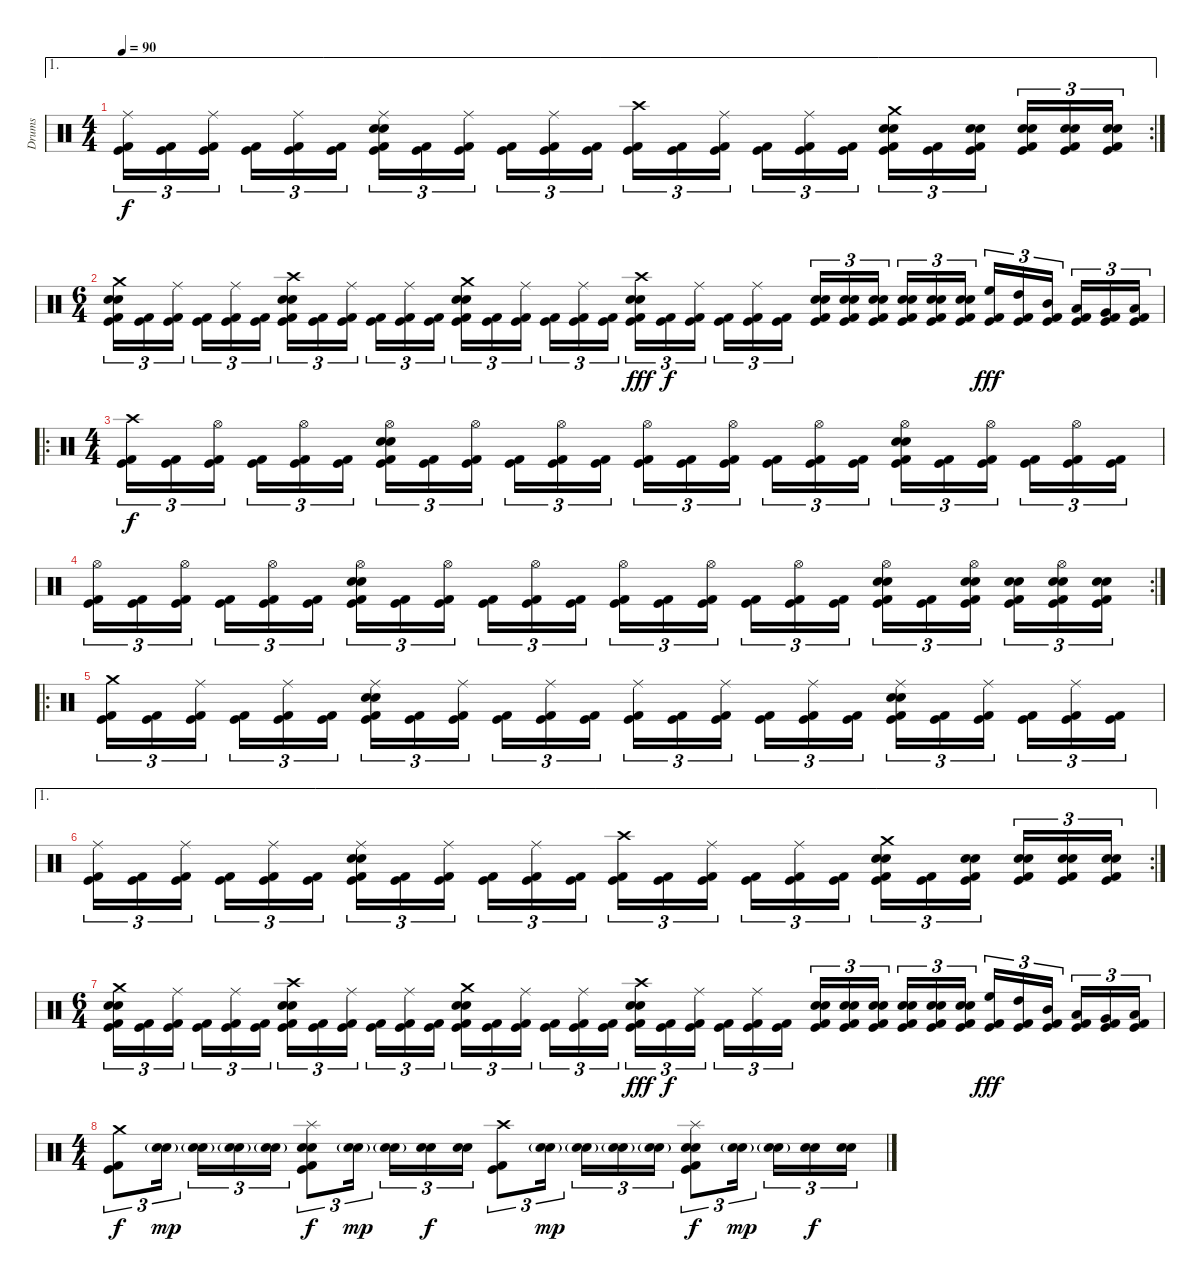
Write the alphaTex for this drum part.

\track ("Drums" "Drums") {instrument percussion}
\staff {score}
\articulation defaults
\ae 1
\rc 2
\ts (4 4)
\tempo 90
\clef neutral
\ks c
("Ride (middle)" "Kick (hit)" "Kick (hit) 2").16{tu (3 2) dy f} ("Kick (hit)" "Kick (hit) 2").16{tu (3 2)} ("Ride (middle)" "Kick (hit)" "Kick (hit) 2").16{tu (3 2) beam splitsecondary} ("Kick (hit)" "Kick (hit) 2").16{tu (3 2)} ("Ride (middle)" "Kick (hit)" "Kick (hit) 2").16{tu (3 2)} ("Kick (hit)" "Kick (hit) 2").16{tu (3 2)} ("Ride (middle)" "Snare (hit) 2" "Electric Snare (hit)" "Kick (hit)" "Kick (hit) 2").16{tu (3 2)} ("Kick (hit)" "Kick (hit) 2").16{tu (3 2)} ("Ride (middle)" "Kick (hit)" "Kick (hit) 2").16{tu (3 2) beam splitsecondary} ("Kick (hit)" "Kick (hit) 2").16{tu (3 2)} ("Ride (middle)" "Kick (hit)" "Kick (hit) 2").16{tu (3 2)} ("Kick (hit)" "Kick (hit) 2").16{tu (3 2)} ("Crash high (hit)" "Kick (hit)" "Kick (hit) 2").16{tu (3 2)} ("Kick (hit)" "Kick (hit) 2").16{tu (3 2)} ("Ride (middle)" "Kick (hit)" "Kick (hit) 2").16{tu (3 2) beam splitsecondary} ("Kick (hit)" "Kick (hit) 2").16{tu (3 2)} ("Ride (middle)" "Kick (hit)" "Kick (hit) 2").16{tu (3 2)} ("Kick (hit)" "Kick (hit) 2").16{tu (3 2)} ("Crash medium (hit)" "Electric Snare (hit)" "Snare (hit) 2" "Kick (hit)" "Kick (hit) 2").16{tu (3 2)} ("Kick (hit)" "Kick (hit) 2").16{tu (3 2)} ("Electric Snare (hit)" "Snare (hit) 2" "Kick (hit)" "Kick (hit) 2").16{tu (3 2) beam splitsecondary} ("Electric Snare (hit)" "Snare (hit) 2" "Kick (hit)" "Kick (hit) 2").16{tu (3 2)} ("Electric Snare (hit)" "Snare (hit) 2" "Kick (hit)" "Kick (hit) 2").16{tu (3 2)} ("Electric Snare (hit)" "Snare (hit) 2" "Kick (hit)" "Kick (hit) 2").16{tu (3 2)} |
\ts (6 4)
("Crash medium (hit)" "Electric Snare (hit)" "Snare (hit) 2" "Kick (hit)" "Kick (hit) 2").16{tu (3 2)} ("Kick (hit)" "Kick (hit) 2").16{tu (3 2)} ("Ride (middle)" "Kick (hit)" "Kick (hit) 2").16{tu (3 2) beam splitsecondary} ("Kick (hit)" "Kick (hit) 2").16{tu (3 2)} ("Ride (middle)" "Kick (hit)" "Kick (hit) 2").16{tu (3 2)} ("Kick (hit)" "Kick (hit) 2").16{tu (3 2) beam splitsecondary} ("Crash high (hit)" "Snare (hit) 2" "Electric Snare (hit)" "Kick (hit)" "Kick (hit) 2").16{tu (3 2)} ("Kick (hit)" "Kick (hit) 2").16{tu (3 2)} ("Ride (middle)" "Kick (hit)" "Kick (hit) 2").16{tu (3 2) beam splitsecondary} ("Kick (hit)" "Kick (hit) 2").16{tu (3 2)} ("Ride (middle)" "Kick (hit)" "Kick (hit) 2").16{tu (3 2)} ("Kick (hit)" "Kick (hit) 2").16{tu (3 2) beam splitsecondary} ("Crash medium (hit)" "Snare (hit) 2" "Electric Snare (hit)" "Kick (hit)" "Kick (hit) 2").16{tu (3 2)} ("Kick (hit)" "Kick (hit) 2").16{tu (3 2)} ("Ride (middle)" "Kick (hit)" "Kick (hit) 2").16{tu (3 2) beam splitsecondary} ("Kick (hit)" "Kick (hit) 2").16{tu (3 2)} ("Ride (middle)" "Kick (hit)" "Kick (hit) 2").16{tu (3 2)} ("Kick (hit)" "Kick (hit) 2").16{tu (3 2)} ("Crash high (hit)" "Snare (hit) 2" "Electric Snare (hit)" "Kick (hit)" "Kick (hit) 2").16{tu (3 2) dy fff} ("Kick (hit)" "Kick (hit) 2").16{tu (3 2) dy f} ("Ride (middle)" "Kick (hit)" "Kick (hit) 2").16{tu (3 2) beam splitsecondary} ("Kick (hit)" "Kick (hit) 2").16{tu (3 2)} ("Ride (middle)" "Kick (hit)" "Kick (hit) 2").16{tu (3 2)} ("Kick (hit)" "Kick (hit) 2").16{tu (3 2) beam splitsecondary} ("Snare (hit) 2" "Electric Snare (hit)" "Kick (hit)" "Kick (hit) 2").16{tu (3 2)} ("Snare (hit) 2" "Electric Snare (hit)" "Kick (hit)" "Kick (hit) 2").16{tu (3 2)} ("Snare (hit) 2" "Electric Snare (hit)" "Kick (hit)" "Kick (hit) 2").16{tu (3 2) beam splitsecondary} ("Snare (hit) 2" "Electric Snare (hit)" "Kick (hit)" "Kick (hit) 2").16{tu (3 2)} ("Snare (hit) 2" "Electric Snare (hit)" "Kick (hit)" "Kick (hit) 2").16{tu (3 2)} ("Snare (hit) 2" "Electric Snare (hit)" "Kick (hit)" "Kick (hit) 2").16{tu (3 2) beam splitsecondary} ("High Floor Tom (hit)" "Kick (hit)" "Kick (hit) 2").16{tu (3 2) dy fff} ("High Tom (hit)" "Kick (hit)" "Kick (hit) 2").16{tu (3 2)} ("Mid Tom (hit)" "Kick (hit)" "Kick (hit) 2").16{tu (3 2) beam splitsecondary} ("Low Tom (hit)" "Kick (hit)" "Kick (hit) 2").16{tu (3 2)} ("Very Low Tom (hit)" "Kick (hit)" "Kick (hit) 2").16{tu (3 2)} ("Low Floor Tom (hit)" "Kick (hit)" "Kick (hit) 2").16{tu (3 2)} |
\ro
\ts (4 4)
("Crash high (hit)" "Kick (hit)" "Kick (hit) 2").16{tu (3 2) dy f} ("Kick (hit)" "Kick (hit) 2").16{tu (3 2)} ("Hi-Hat (open)" "Kick (hit)" "Kick (hit) 2").16{tu (3 2) beam splitsecondary} ("Kick (hit)" "Kick (hit) 2").16{tu (3 2)} ("Hi-Hat (open)" "Kick (hit)" "Kick (hit) 2").16{tu (3 2)} ("Kick (hit)" "Kick (hit) 2").16{tu (3 2)} ("Hi-Hat (open)" "Snare (hit) 2" "Electric Snare (hit)" "Kick (hit)" "Kick (hit) 2").16{tu (3 2)} ("Kick (hit)" "Kick (hit) 2").16{tu (3 2)} ("Hi-Hat (open)" "Kick (hit)" "Kick (hit) 2").16{tu (3 2) beam splitsecondary} ("Kick (hit)" "Kick (hit) 2").16{tu (3 2)} ("Hi-Hat (open)" "Kick (hit)" "Kick (hit) 2").16{tu (3 2)} ("Kick (hit)" "Kick (hit) 2").16{tu (3 2)} ("Hi-Hat (open)" "Kick (hit)" "Kick (hit) 2").16{tu (3 2)} ("Kick (hit)" "Kick (hit) 2").16{tu (3 2)} ("Hi-Hat (open)" "Kick (hit)" "Kick (hit) 2").16{tu (3 2) beam splitsecondary} ("Kick (hit)" "Kick (hit) 2").16{tu (3 2)} ("Hi-Hat (open)" "Kick (hit)" "Kick (hit) 2").16{tu (3 2)} ("Kick (hit)" "Kick (hit) 2").16{tu (3 2)} ("Hi-Hat (open)" "Electric Snare (hit)" "Snare (hit) 2" "Kick (hit)" "Kick (hit) 2").16{tu (3 2)} ("Kick (hit)" "Kick (hit) 2").16{tu (3 2)} ("Hi-Hat (open)" "Kick (hit)" "Kick (hit) 2").16{tu (3 2) beam splitsecondary} ("Kick (hit)" "Kick (hit) 2").16{tu (3 2)} ("Hi-Hat (open)" "Kick (hit)" "Kick (hit) 2").16{tu (3 2)} ("Kick (hit)" "Kick (hit) 2").16{tu (3 2)} |
\rc 2
("Hi-Hat (open)" "Kick (hit)" "Kick (hit) 2").16{tu (3 2)} ("Kick (hit)" "Kick (hit) 2").16{tu (3 2)} ("Hi-Hat (open)" "Kick (hit)" "Kick (hit) 2").16{tu (3 2) beam splitsecondary} ("Kick (hit)" "Kick (hit) 2").16{tu (3 2)} ("Hi-Hat (open)" "Kick (hit)" "Kick (hit) 2").16{tu (3 2)} ("Kick (hit)" "Kick (hit) 2").16{tu (3 2)} ("Hi-Hat (open)" "Snare (hit) 2" "Electric Snare (hit)" "Kick (hit)" "Kick (hit) 2").16{tu (3 2)} ("Kick (hit)" "Kick (hit) 2").16{tu (3 2)} ("Hi-Hat (open)" "Kick (hit)" "Kick (hit) 2").16{tu (3 2) beam splitsecondary} ("Kick (hit)" "Kick (hit) 2").16{tu (3 2)} ("Hi-Hat (open)" "Kick (hit)" "Kick (hit) 2").16{tu (3 2)} ("Kick (hit)" "Kick (hit) 2").16{tu (3 2)} ("Hi-Hat (open)" "Kick (hit)" "Kick (hit) 2").16{tu (3 2)} ("Kick (hit)" "Kick (hit) 2").16{tu (3 2)} ("Hi-Hat (open)" "Kick (hit)" "Kick (hit) 2").16{tu (3 2) beam splitsecondary} ("Kick (hit)" "Kick (hit) 2").16{tu (3 2)} ("Hi-Hat (open)" "Kick (hit)" "Kick (hit) 2").16{tu (3 2)} ("Kick (hit)" "Kick (hit) 2").16{tu (3 2)} ("Hi-Hat (open)" "Electric Snare (hit)" "Snare (hit) 2" "Kick (hit)" "Kick (hit) 2").16{tu (3 2)} ("Kick (hit)" "Kick (hit) 2").16{tu (3 2)} ("Hi-Hat (open)" "Electric Snare (hit)" "Snare (hit) 2" "Kick (hit)" "Kick (hit) 2").16{tu (3 2) beam splitsecondary} ("Electric Snare (hit)" "Snare (hit) 2" "Kick (hit)" "Kick (hit) 2").16{tu (3 2)} ("Hi-Hat (open)" "Electric Snare (hit)" "Snare (hit) 2" "Kick (hit)" "Kick (hit) 2").16{tu (3 2)} ("Electric Snare (hit)" "Snare (hit) 2" "Kick (hit)" "Kick (hit) 2").16{tu (3 2)} |
\ro
("Crash medium (hit)" "Kick (hit)" "Kick (hit) 2").16{tu (3 2)} ("Kick (hit)" "Kick (hit) 2").16{tu (3 2)} ("Ride (middle)" "Kick (hit)" "Kick (hit) 2").16{tu (3 2) beam splitsecondary} ("Kick (hit)" "Kick (hit) 2").16{tu (3 2)} ("Ride (middle)" "Kick (hit)" "Kick (hit) 2").16{tu (3 2)} ("Kick (hit)" "Kick (hit) 2").16{tu (3 2)} ("Ride (middle)" "Snare (hit) 2" "Electric Snare (hit)" "Kick (hit)" "Kick (hit) 2").16{tu (3 2)} ("Kick (hit)" "Kick (hit) 2").16{tu (3 2)} ("Ride (middle)" "Kick (hit)" "Kick (hit) 2").16{tu (3 2) beam splitsecondary} ("Kick (hit)" "Kick (hit) 2").16{tu (3 2)} ("Ride (middle)" "Kick (hit)" "Kick (hit) 2").16{tu (3 2)} ("Kick (hit)" "Kick (hit) 2").16{tu (3 2)} ("Ride (middle)" "Kick (hit)" "Kick (hit) 2").16{tu (3 2)} ("Kick (hit)" "Kick (hit) 2").16{tu (3 2)} ("Ride (middle)" "Kick (hit)" "Kick (hit) 2").16{tu (3 2) beam splitsecondary} ("Kick (hit)" "Kick (hit) 2").16{tu (3 2)} ("Ride (middle)" "Kick (hit)" "Kick (hit) 2").16{tu (3 2)} ("Kick (hit)" "Kick (hit) 2").16{tu (3 2)} ("Ride (middle)" "Electric Snare (hit)" "Snare (hit) 2" "Kick (hit)" "Kick (hit) 2").16{tu (3 2)} ("Kick (hit)" "Kick (hit) 2").16{tu (3 2)} ("Ride (middle)" "Kick (hit)" "Kick (hit) 2").16{tu (3 2) beam splitsecondary} ("Kick (hit)" "Kick (hit) 2").16{tu (3 2)} ("Ride (middle)" "Kick (hit)" "Kick (hit) 2").16{tu (3 2)} ("Kick (hit)" "Kick (hit) 2").16{tu (3 2)} |
\ae 1
\rc 2
("Ride (middle)" "Kick (hit)" "Kick (hit) 2").16{tu (3 2)} ("Kick (hit)" "Kick (hit) 2").16{tu (3 2)} ("Ride (middle)" "Kick (hit)" "Kick (hit) 2").16{tu (3 2) beam splitsecondary} ("Kick (hit)" "Kick (hit) 2").16{tu (3 2)} ("Ride (middle)" "Kick (hit)" "Kick (hit) 2").16{tu (3 2)} ("Kick (hit)" "Kick (hit) 2").16{tu (3 2)} ("Ride (middle)" "Snare (hit) 2" "Electric Snare (hit)" "Kick (hit)" "Kick (hit) 2").16{tu (3 2)} ("Kick (hit)" "Kick (hit) 2").16{tu (3 2)} ("Ride (middle)" "Kick (hit)" "Kick (hit) 2").16{tu (3 2) beam splitsecondary} ("Kick (hit)" "Kick (hit) 2").16{tu (3 2)} ("Ride (middle)" "Kick (hit)" "Kick (hit) 2").16{tu (3 2)} ("Kick (hit)" "Kick (hit) 2").16{tu (3 2)} ("Crash high (hit)" "Kick (hit)" "Kick (hit) 2").16{tu (3 2)} ("Kick (hit)" "Kick (hit) 2").16{tu (3 2)} ("Ride (middle)" "Kick (hit)" "Kick (hit) 2").16{tu (3 2) beam splitsecondary} ("Kick (hit)" "Kick (hit) 2").16{tu (3 2)} ("Ride (middle)" "Kick (hit)" "Kick (hit) 2").16{tu (3 2)} ("Kick (hit)" "Kick (hit) 2").16{tu (3 2)} ("Crash medium (hit)" "Electric Snare (hit)" "Snare (hit) 2" "Kick (hit)" "Kick (hit) 2").16{tu (3 2)} ("Kick (hit)" "Kick (hit) 2").16{tu (3 2)} ("Electric Snare (hit)" "Snare (hit) 2" "Kick (hit)" "Kick (hit) 2").16{tu (3 2) beam splitsecondary} ("Electric Snare (hit)" "Snare (hit) 2" "Kick (hit)" "Kick (hit) 2").16{tu (3 2)} ("Electric Snare (hit)" "Snare (hit) 2" "Kick (hit)" "Kick (hit) 2").16{tu (3 2)} ("Electric Snare (hit)" "Snare (hit) 2" "Kick (hit)" "Kick (hit) 2").16{tu (3 2)} |
\ts (6 4)
("Crash medium (hit)" "Electric Snare (hit)" "Snare (hit) 2" "Kick (hit)" "Kick (hit) 2").16{tu (3 2)} ("Kick (hit)" "Kick (hit) 2").16{tu (3 2)} ("Ride (middle)" "Kick (hit)" "Kick (hit) 2").16{tu (3 2) beam splitsecondary} ("Kick (hit)" "Kick (hit) 2").16{tu (3 2)} ("Ride (middle)" "Kick (hit)" "Kick (hit) 2").16{tu (3 2)} ("Kick (hit)" "Kick (hit) 2").16{tu (3 2) beam splitsecondary} ("Crash high (hit)" "Snare (hit) 2" "Electric Snare (hit)" "Kick (hit)" "Kick (hit) 2").16{tu (3 2)} ("Kick (hit)" "Kick (hit) 2").16{tu (3 2)} ("Ride (middle)" "Kick (hit)" "Kick (hit) 2").16{tu (3 2) beam splitsecondary} ("Kick (hit)" "Kick (hit) 2").16{tu (3 2)} ("Ride (middle)" "Kick (hit)" "Kick (hit) 2").16{tu (3 2)} ("Kick (hit)" "Kick (hit) 2").16{tu (3 2) beam splitsecondary} ("Crash medium (hit)" "Snare (hit) 2" "Electric Snare (hit)" "Kick (hit)" "Kick (hit) 2").16{tu (3 2)} ("Kick (hit)" "Kick (hit) 2").16{tu (3 2)} ("Ride (middle)" "Kick (hit)" "Kick (hit) 2").16{tu (3 2) beam splitsecondary} ("Kick (hit)" "Kick (hit) 2").16{tu (3 2)} ("Ride (middle)" "Kick (hit)" "Kick (hit) 2").16{tu (3 2)} ("Kick (hit)" "Kick (hit) 2").16{tu (3 2)} ("Crash high (hit)" "Snare (hit) 2" "Electric Snare (hit)" "Kick (hit)" "Kick (hit) 2").16{tu (3 2) dy fff} ("Kick (hit)" "Kick (hit) 2").16{tu (3 2) dy f} ("Ride (middle)" "Kick (hit)" "Kick (hit) 2").16{tu (3 2) beam splitsecondary} ("Kick (hit)" "Kick (hit) 2").16{tu (3 2)} ("Ride (middle)" "Kick (hit)" "Kick (hit) 2").16{tu (3 2)} ("Kick (hit)" "Kick (hit) 2").16{tu (3 2) beam splitsecondary} ("Snare (hit) 2" "Electric Snare (hit)" "Kick (hit)" "Kick (hit) 2").16{tu (3 2)} ("Snare (hit) 2" "Electric Snare (hit)" "Kick (hit)" "Kick (hit) 2").16{tu (3 2)} ("Snare (hit) 2" "Electric Snare (hit)" "Kick (hit)" "Kick (hit) 2").16{tu (3 2) beam splitsecondary} ("Snare (hit) 2" "Electric Snare (hit)" "Kick (hit)" "Kick (hit) 2").16{tu (3 2)} ("Snare (hit) 2" "Electric Snare (hit)" "Kick (hit)" "Kick (hit) 2").16{tu (3 2)} ("Snare (hit) 2" "Electric Snare (hit)" "Kick (hit)" "Kick (hit) 2").16{tu (3 2) beam splitsecondary} ("High Floor Tom (hit)" "Kick (hit)" "Kick (hit) 2").16{tu (3 2) dy fff} ("High Tom (hit)" "Kick (hit)" "Kick (hit) 2").16{tu (3 2)} ("Mid Tom (hit)" "Kick (hit)" "Kick (hit) 2").16{tu (3 2) beam splitsecondary} ("Low Tom (hit)" "Kick (hit)" "Kick (hit) 2").16{tu (3 2)} ("Very Low Tom (hit)" "Kick (hit)" "Kick (hit) 2").16{tu (3 2)} ("Low Floor Tom (hit)" "Kick (hit)" "Kick (hit) 2").16{tu (3 2)} |
\ts (4 4)
("Crash medium (hit)" "Kick (hit)" "Kick (hit) 2").8{tu (3 2) dy f} ("Snare (hit) 2"{g} "Electric Snare (hit)"{g}).16{tu (3 2) dy mp beam splitsecondary} ("Snare (hit) 2"{g} "Electric Snare (hit)"{g}).16{tu (3 2)} ("Snare (hit) 2"{g} "Electric Snare (hit)"{g}).16{tu (3 2)} ("Snare (hit) 2"{g} "Electric Snare (hit)"{g}).16{tu (3 2)} ("Splash (hit)" "Snare (hit) 2" "Electric Snare (hit)" "Kick (hit)" "Kick (hit) 2").8{tu (3 2) dy f} ("Snare (hit) 2"{g} "Electric Snare (hit)"{g}).16{tu (3 2) dy mp beam splitsecondary} ("Snare (hit) 2"{g} "Electric Snare (hit)"{g}).16{tu (3 2)} ("Snare (hit) 2" "Electric Snare (hit)").16{tu (3 2) dy f} ("Snare (hit) 2" "Electric Snare (hit)").16{tu (3 2)} ("Crash high (hit)" "Kick (hit)" "Kick (hit) 2").8{tu (3 2)} ("Electric Snare (hit)"{g} "Snare (hit) 2"{g}).16{tu (3 2) dy mp beam splitsecondary} ("Electric Snare (hit)"{g} "Snare (hit) 2"{g}).16{tu (3 2)} ("Electric Snare (hit)"{g} "Snare (hit) 2"{g}).16{tu (3 2)} ("Electric Snare (hit)"{g} "Snare (hit) 2"{g}).16{tu (3 2)} ("Splash (hit)" "Electric Snare (hit)" "Snare (hit) 2" "Kick (hit)" "Kick (hit) 2").8{tu (3 2) dy f} ("Snare (hit) 2"{g} "Electric Snare (hit)"{g}).16{tu (3 2) dy mp beam splitsecondary} ("Snare (hit) 2"{g} "Electric Snare (hit)"{g}).16{tu (3 2)} ("Snare (hit) 2" "Electric Snare (hit)").16{tu (3 2) dy f} ("Snare (hit) 2" "Electric Snare (hit)").16{tu (3 2)}
